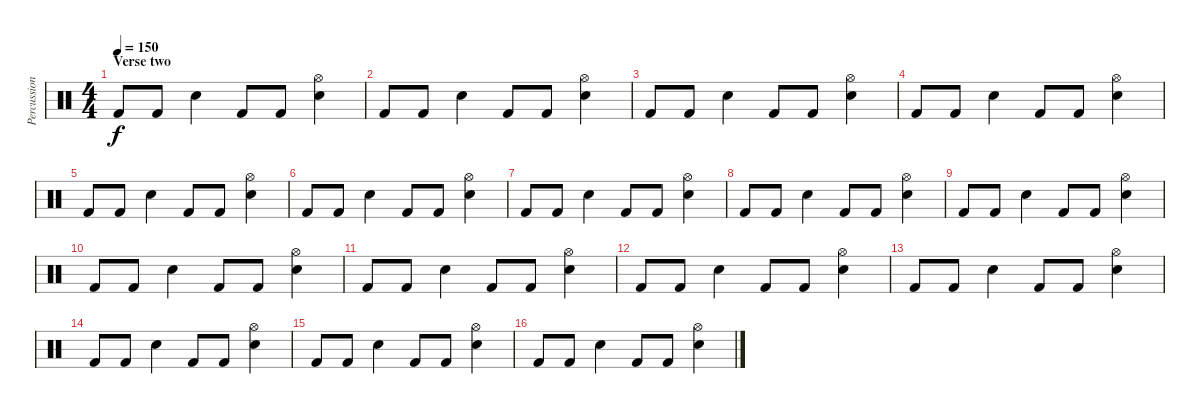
\track ("Percussion" "Percussion") {instrument percussion}
\staff {score}
\articulation defaults
\ts (4 4)
\section ("" "Verse two")
\tempo 150
\clef neutral
\ks c "Kick (hit) 2".8{dy f} "Kick (hit) 2".8 "Electric Snare (hit)".4 "Kick (hit) 2".8 "Kick (hit) 2".8
("Hi-Hat (open)" "Electric Snare (hit)").4 |
"Kick (hit) 2".8 "Kick (hit) 2".8 "Electric Snare (hit)".4 "Kick (hit) 2".8 "Kick (hit) 2".8 ("Hi-Hat (open)" "Electric Snare (hit)").4 |
"Kick (hit) 2".8 "Kick (hit) 2".8 "Electric Snare (hit)".4 "Kick (hit) 2".8 "Kick (hit) 2".8 ("Hi-Hat (open)" "Electric Snare (hit)").4 |
"Kick (hit) 2".8 "Kick (hit) 2".8 "Electric Snare (hit)".4 "Kick (hit) 2".8 "Kick (hit) 2".8 ("Hi-Hat (open)" "Electric Snare (hit)").4 |
"Kick (hit) 2".8 "Kick (hit) 2".8 "Electric Snare (hit)".4 "Kick (hit) 2".8 "Kick (hit) 2".8 ("Hi-Hat (open)" "Electric Snare (hit)").4 |
"Kick (hit) 2".8 "Kick (hit) 2".8 "Electric Snare (hit)".4 "Kick (hit) 2".8 "Kick (hit) 2".8 ("Hi-Hat (open)" "Electric Snare (hit)").4 |
"Kick (hit) 2".8 "Kick (hit) 2".8 "Electric Snare (hit)".4 "Kick (hit) 2".8 "Kick (hit) 2".8 ("Hi-Hat (open)" "Electric Snare (hit)").4 |
"Kick (hit) 2".8 "Kick (hit) 2".8 "Electric Snare (hit)".4 "Kick (hit) 2".8 "Kick (hit) 2".8 ("Hi-Hat (open)" "Electric Snare (hit)").4 |
"Kick (hit) 2".8 "Kick (hit) 2".8 "Electric Snare (hit)".4 "Kick (hit) 2".8 "Kick (hit) 2".8 ("Hi-Hat (open)" "Electric Snare (hit)").4 |
"Kick (hit) 2".8 "Kick (hit) 2".8 "Electric Snare (hit)".4 "Kick (hit) 2".8 "Kick (hit) 2".8 ("Hi-Hat (open)" "Electric Snare (hit)").4 |
"Kick (hit) 2".8 "Kick (hit) 2".8 "Electric Snare (hit)".4 "Kick (hit) 2".8 "Kick (hit) 2".8 ("Hi-Hat (open)" "Electric Snare (hit)").4 |
"Kick (hit) 2".8 "Kick (hit) 2".8 "Electric Snare (hit)".4 "Kick (hit) 2".8 "Kick (hit) 2".8 ("Hi-Hat (open)" "Electric Snare (hit)").4 |
"Kick (hit) 2".8 "Kick (hit) 2".8 "Electric Snare (hit)".4 "Kick (hit) 2".8 "Kick (hit) 2".8 ("Hi-Hat (open)" "Electric Snare (hit)").4 |
"Kick (hit) 2".8 "Kick (hit) 2".8 "Electric Snare (hit)".4 "Kick (hit) 2".8 "Kick (hit) 2".8 ("Hi-Hat (open)" "Electric Snare (hit)").4 |
"Kick (hit) 2".8 "Kick (hit) 2".8 "Electric Snare (hit)".4 "Kick (hit) 2".8 "Kick (hit) 2".8 ("Hi-Hat (open)" "Electric Snare (hit)").4 |
"Kick (hit) 2".8 "Kick (hit) 2".8 "Electric Snare (hit)".4 "Kick (hit) 2".8 "Kick (hit) 2".8 ("Hi-Hat (open)" "Electric Snare (hit)").4
